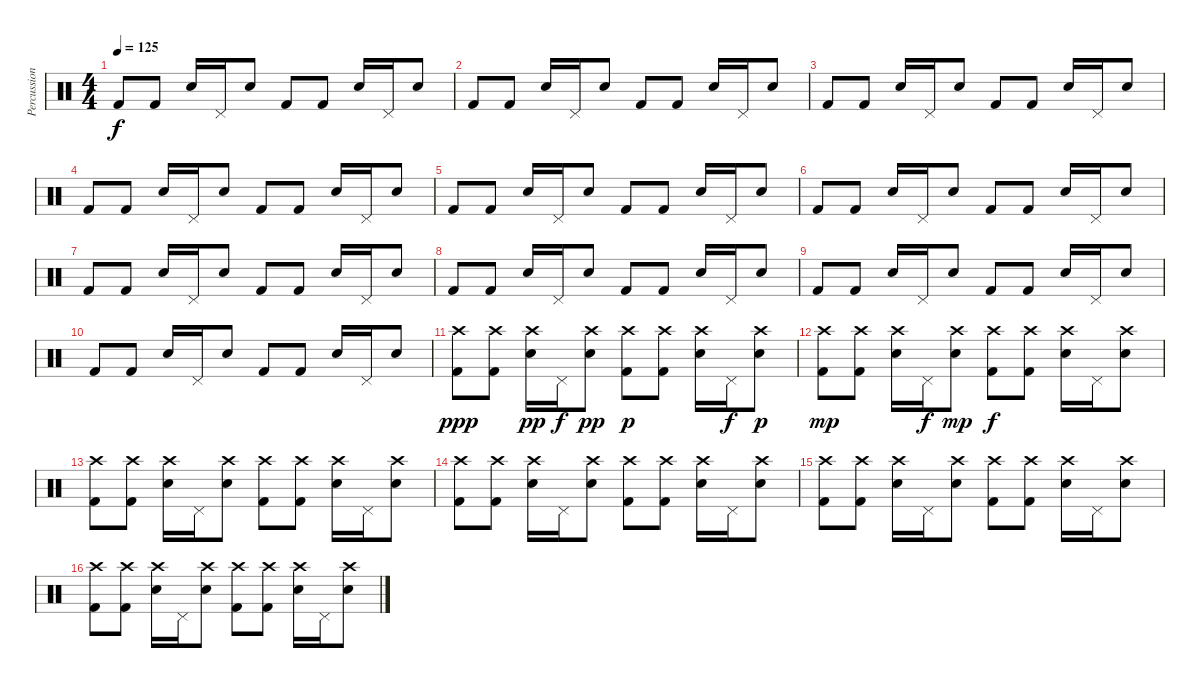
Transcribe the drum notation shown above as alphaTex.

\track ("Percussion" "Percussion") {instrument percussion}
\staff {score}
\articulation defaults
\ts (4 4)
\tempo 125
\clef neutral
\ks c "Kick (hit) 2".8{dy f} "Kick (hit) 2".8 "Electric Snare (hit)".16 "Pedal Hi-Hat (hit)".16 "Electric Snare (hit)".8 "Kick (hit) 2".8 "Kick (hit) 2".8 "Electric Snare (hit)".16 "Pedal Hi-Hat (hit)".16 "Electric Snare (hit)".8
|
"Kick (hit) 2".8 "Kick (hit) 2".8 "Electric Snare (hit)".16 "Pedal Hi-Hat (hit)".16 "Electric Snare (hit)".8 "Kick (hit) 2".8 "Kick (hit) 2".8 "Electric Snare (hit)".16 "Pedal Hi-Hat (hit)".16 "Electric Snare (hit)".8 |
"Kick (hit) 2".8 "Kick (hit) 2".8 "Electric Snare (hit)".16 "Pedal Hi-Hat (hit)".16 "Electric Snare (hit)".8 "Kick (hit) 2".8 "Kick (hit) 2".8 "Electric Snare (hit)".16 "Pedal Hi-Hat (hit)".16 "Electric Snare (hit)".8 |
"Kick (hit) 2".8 "Kick (hit) 2".8 "Electric Snare (hit)".16 "Pedal Hi-Hat (hit)".16 "Electric Snare (hit)".8 "Kick (hit) 2".8 "Kick (hit) 2".8 "Electric Snare (hit)".16 "Pedal Hi-Hat (hit)".16 "Electric Snare (hit)".8 |
"Kick (hit) 2".8 "Kick (hit) 2".8 "Electric Snare (hit)".16 "Pedal Hi-Hat (hit)".16 "Electric Snare (hit)".8 "Kick (hit) 2".8 "Kick (hit) 2".8 "Electric Snare (hit)".16 "Pedal Hi-Hat (hit)".16 "Electric Snare (hit)".8 |
"Kick (hit) 2".8 "Kick (hit) 2".8 "Electric Snare (hit)".16 "Pedal Hi-Hat (hit)".16 "Electric Snare (hit)".8 "Kick (hit) 2".8 "Kick (hit) 2".8 "Electric Snare (hit)".16 "Pedal Hi-Hat (hit)".16 "Electric Snare (hit)".8 |
"Kick (hit) 2".8 "Kick (hit) 2".8 "Electric Snare (hit)".16 "Pedal Hi-Hat (hit)".16 "Electric Snare (hit)".8 "Kick (hit) 2".8 "Kick (hit) 2".8 "Electric Snare (hit)".16 "Pedal Hi-Hat (hit)".16 "Electric Snare (hit)".8 |
"Kick (hit) 2".8 "Kick (hit) 2".8 "Electric Snare (hit)".16 "Pedal Hi-Hat (hit)".16 "Electric Snare (hit)".8 "Kick (hit) 2".8 "Kick (hit) 2".8 "Electric Snare (hit)".16 "Pedal Hi-Hat (hit)".16 "Electric Snare (hit)".8 |
"Kick (hit) 2".8 "Kick (hit) 2".8 "Electric Snare (hit)".16 "Pedal Hi-Hat (hit)".16 "Electric Snare (hit)".8 "Kick (hit) 2".8 "Kick (hit) 2".8 "Electric Snare (hit)".16 "Pedal Hi-Hat (hit)".16 "Electric Snare (hit)".8 |
"Kick (hit) 2".8 "Kick (hit) 2".8 "Electric Snare (hit)".16 "Pedal Hi-Hat (hit)".16 "Electric Snare (hit)".8 "Kick (hit) 2".8 "Kick (hit) 2".8 "Electric Snare (hit)".16 "Pedal Hi-Hat (hit)".16 "Electric Snare (hit)".8 |
("Crash high (hit)" "Kick (hit) 2").8{dy ppp} ("Crash high (hit)" "Kick (hit) 2").8 ("Crash high (hit)" "Electric Snare (hit)").16{dy pp} "Pedal Hi-Hat (hit)".16{dy f} ("Crash high (hit)" "Electric Snare (hit)").8{dy pp} ("Crash high (hit)" "Kick (hit) 2").8{dy p} ("Crash high (hit)" "Kick (hit) 2").8 ("Crash high (hit)" "Electric Snare (hit)").16 "Pedal Hi-Hat (hit)".16{dy f} ("Crash high (hit)" "Electric Snare (hit)").8{dy p} |
("Crash high (hit)" "Kick (hit) 2").8{dy mp} ("Crash high (hit)" "Kick (hit) 2").8 ("Crash high (hit)" "Electric Snare (hit)").16 "Pedal Hi-Hat (hit)".16{dy f} ("Crash high (hit)" "Electric Snare (hit)").8{dy mp} ("Crash high (hit)" "Kick (hit) 2").8{dy f} ("Crash high (hit)" "Kick (hit) 2").8 ("Crash high (hit)" "Electric Snare (hit)").16 "Pedal Hi-Hat (hit)".16 ("Crash high (hit)" "Electric Snare (hit)").8 |
("Crash high (hit)" "Kick (hit) 2").8 ("Crash high (hit)" "Kick (hit) 2").8 ("Crash high (hit)" "Electric Snare (hit)").16 "Pedal Hi-Hat (hit)".16 ("Crash high (hit)" "Electric Snare (hit)").8 ("Crash high (hit)" "Kick (hit) 2").8 ("Crash high (hit)" "Kick (hit) 2").8 ("Crash high (hit)" "Electric Snare (hit)").16 "Pedal Hi-Hat (hit)".16 ("Crash high (hit)" "Electric Snare (hit)").8 |
("Crash high (hit)" "Kick (hit) 2").8 ("Crash high (hit)" "Kick (hit) 2").8 ("Crash high (hit)" "Electric Snare (hit)").16 "Pedal Hi-Hat (hit)".16 ("Crash high (hit)" "Electric Snare (hit)").8 ("Crash high (hit)" "Kick (hit) 2").8 ("Crash high (hit)" "Kick (hit) 2").8 ("Crash high (hit)" "Electric Snare (hit)").16 "Pedal Hi-Hat (hit)".16 ("Crash high (hit)" "Electric Snare (hit)").8 |
("Crash high (hit)" "Kick (hit) 2").8 ("Crash high (hit)" "Kick (hit) 2").8 ("Crash high (hit)" "Electric Snare (hit)").16 "Pedal Hi-Hat (hit)".16 ("Crash high (hit)" "Electric Snare (hit)").8 ("Crash high (hit)" "Kick (hit) 2").8 ("Crash high (hit)" "Kick (hit) 2").8 ("Crash high (hit)" "Electric Snare (hit)").16 "Pedal Hi-Hat (hit)".16 ("Crash high (hit)" "Electric Snare (hit)").8 |
("Crash high (hit)" "Kick (hit) 2").8 ("Crash high (hit)" "Kick (hit) 2").8 ("Crash high (hit)" "Electric Snare (hit)").16 "Pedal Hi-Hat (hit)".16 ("Crash high (hit)" "Electric Snare (hit)").8 ("Crash high (hit)" "Kick (hit) 2").8 ("Crash high (hit)" "Kick (hit) 2").8 ("Crash high (hit)" "Electric Snare (hit)").16 "Pedal Hi-Hat (hit)".16 ("Crash high (hit)" "Electric Snare (hit)").8
